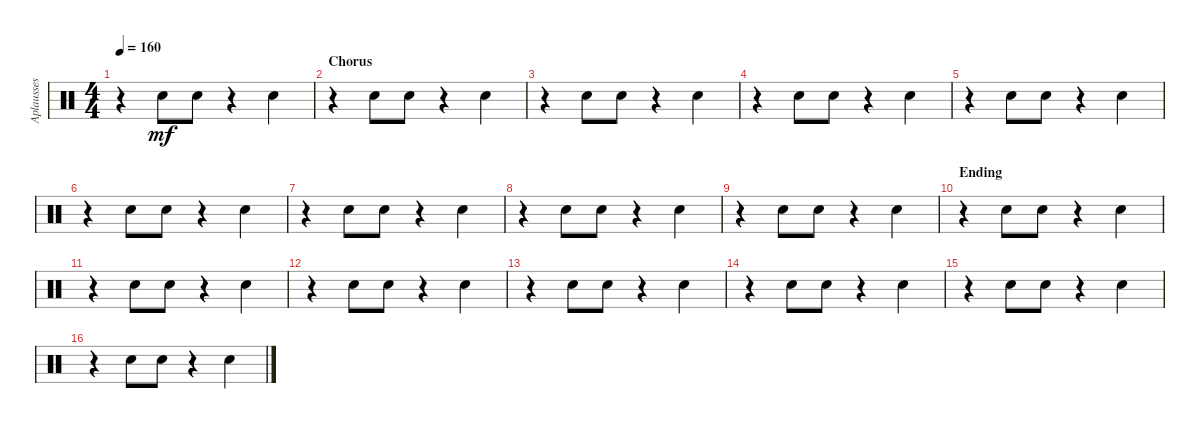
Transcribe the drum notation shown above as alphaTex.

\track ("Aplausses" "Aplausses") {instrument percussion}
\staff {score}
\articulation defaults
\ts (4 4)
\tempo 160
\clef neutral
\ks c
r.4{dy mf} "Hand Clap (hit)".8 "Hand Clap (hit)".8 r.4 "Hand Clap (hit)".4 |
\section ("" "Chorus")
r.4 "Hand Clap (hit)".8 "Hand Clap (hit)".8 r.4 "Hand Clap (hit)".4 |
r.4 "Hand Clap (hit)".8 "Hand Clap (hit)".8 r.4 "Hand Clap (hit)".4 |
r.4 "Hand Clap (hit)".8 "Hand Clap (hit)".8 r.4 "Hand Clap (hit)".4 |
r.4 "Hand Clap (hit)".8 "Hand Clap (hit)".8 r.4 "Hand Clap (hit)".4 |
r.4 "Hand Clap (hit)".8 "Hand Clap (hit)".8 r.4 "Hand Clap (hit)".4 |
r.4 "Hand Clap (hit)".8 "Hand Clap (hit)".8 r.4 "Hand Clap (hit)".4 |
r.4 "Hand Clap (hit)".8 "Hand Clap (hit)".8 r.4 "Hand Clap (hit)".4 |
r.4 "Hand Clap (hit)".8 "Hand Clap (hit)".8 r.4 "Hand Clap (hit)".4 |
\section ("" "Ending")
r.4 "Hand Clap (hit)".8 "Hand Clap (hit)".8 r.4 "Hand Clap (hit)".4 |
r.4 "Hand Clap (hit)".8 "Hand Clap (hit)".8 r.4 "Hand Clap (hit)".4 |
r.4 "Hand Clap (hit)".8 "Hand Clap (hit)".8 r.4 "Hand Clap (hit)".4 |
r.4 "Hand Clap (hit)".8 "Hand Clap (hit)".8 r.4 "Hand Clap (hit)".4 |
r.4 "Hand Clap (hit)".8 "Hand Clap (hit)".8 r.4 "Hand Clap (hit)".4 |
r.4 "Hand Clap (hit)".8 "Hand Clap (hit)".8 r.4 "Hand Clap (hit)".4 |
r.4 "Hand Clap (hit)".8 "Hand Clap (hit)".8 r.4 "Hand Clap (hit)".4
